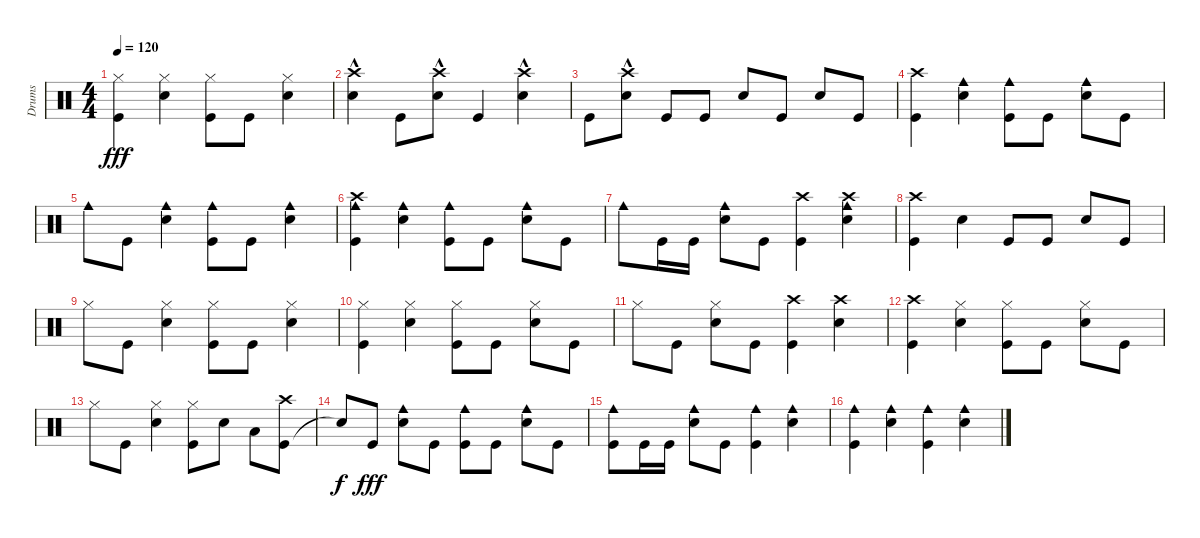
\track ("Drums" "Drums") {instrument percussion}
\staff {score}
\articulation defaults
\ts (4 4)
\tempo 120
\clef neutral
\ks c
("Kick (hit)" "Hi-Hat (closed)").4{dy fff} ("Snare (hit) 2" "Hi-Hat (closed)").4 ("Kick (hit)" "Hi-Hat (closed)").8 "Kick (hit)".8 ("Snare (hit) 2" "Hi-Hat (closed)").4 |
("Crash high (hit)"{hac} "Snare (hit) 2").4 "Kick (hit)".8 ("Crash high (hit)"{hac} "Snare (hit) 2").8 "Kick (hit)".4 ("Crash high (hit)"{hac} "Snare (hit) 2").4 |
"Kick (hit)".8 ("Crash high (hit)"{hac} "Snare (hit) 2").8 "Kick (hit)".8 "Kick (hit)".8 "Snare (hit) 2".8 "Kick (hit)".8 "Snare (hit) 2".8 "Kick (hit)".8 |
("Crash high (hit)" "Kick (hit)").4 ("Snare (hit) 2" "Cowbell medium (hit)").4 ("Kick (hit)" "Cowbell medium (hit)").8 "Kick (hit)".8 ("Snare (hit) 2" "Cowbell medium (hit)").8 "Kick (hit)".8 |
"Cowbell medium (hit)".8 "Kick (hit)".8 ("Cowbell medium (hit)" "Snare (hit) 2").4 ("Cowbell medium (hit)" "Kick (hit)").8 "Kick (hit)".8 ("Cowbell medium (hit)" "Snare (hit) 2").4 |
("Cowbell medium (hit)" "Crash high (hit)" "Kick (hit)").4 ("Cowbell medium (hit)" "Snare (hit) 2").4 ("Cowbell medium (hit)" "Kick (hit)").8 "Kick (hit)".8 ("Cowbell medium (hit)" "Snare (hit) 2").8 "Kick (hit)".8 |
"Cowbell medium (hit)".8 "Kick (hit)".16 "Kick (hit)".16 ("Cowbell medium (hit)" "Snare (hit) 2").8 "Kick (hit)".8 ("Kick (hit)" "Crash high (hit)").4 ("Cowbell medium (hit)" "Snare (hit) 2" "Crash high (hit)").4 |
("Kick (hit)" "Crash high (hit)").4 "Snare (hit) 2".4 "Kick (hit)".8 "Kick (hit)".8 "Snare (hit) 2".8 "Kick (hit)".8 |
"Hi-Hat (closed)".8 "Kick (hit)".8 ("Snare (hit) 2" "Hi-Hat (closed)").4 ("Kick (hit)" "Hi-Hat (closed)").8 "Kick (hit)".8 ("Snare (hit) 2" "Hi-Hat (closed)").4 |
("Kick (hit)" "Hi-Hat (closed)").4 ("Hi-Hat (closed)" "Snare (hit) 2").4 ("Kick (hit)" "Hi-Hat (closed)").8 "Kick (hit)".8 ("Snare (hit) 2" "Hi-Hat (closed)").8 "Kick (hit)".8 |
"Hi-Hat (closed)".8 "Kick (hit)".8 ("Hi-Hat (closed)" "Snare (hit) 2").8 "Kick (hit)".8 ("Crash high (hit)" "Kick (hit)").4 ("Crash high (hit)" "Snare (hit) 2").4 |
("Crash high (hit)" "Kick (hit)").4 ("Snare (hit) 2" "Hi-Hat (closed)").4 ("Kick (hit)" "Hi-Hat (closed)").8 "Kick (hit)".8 ("Snare (hit) 2" "Hi-Hat (closed)").8 "Kick (hit)".8 |
"Hi-Hat (closed)".8 "Kick (hit)".8 ("Hi-Hat (closed)" "Snare (hit) 2").4 ("Kick (hit)" "Hi-Hat (closed)").8 "Snare (hit) 2".8 "Low Floor Tom (hit)".8 ("Kick (hit)" "Crash high (hit)").8 |
"Snare (hit)"{t}.8{dy f} "Kick (hit)".8{dy fff} ("Snare (hit) 2" "Cowbell medium (hit)").8 "Kick (hit)".8 ("Kick (hit)" "Cowbell medium (hit)").8 "Kick (hit)".8 ("Snare (hit) 2" "Cowbell medium (hit)").8 "Kick (hit)".8 |
("Cowbell medium (hit)" "Kick (hit)").8 "Kick (hit)".16 "Kick (hit)".16 ("Cowbell medium (hit)" "Snare (hit) 2").8 "Kick (hit)".8 ("Cowbell medium (hit)" "Kick (hit)").4 ("Cowbell medium (hit)" "Snare (hit) 2").4 |
("Cowbell medium (hit)" "Kick (hit)").4 ("Cowbell medium (hit)" "Snare (hit) 2").4 ("Cowbell medium (hit)" "Kick (hit)").4 ("Cowbell medium (hit)" "Snare (hit) 2").4
